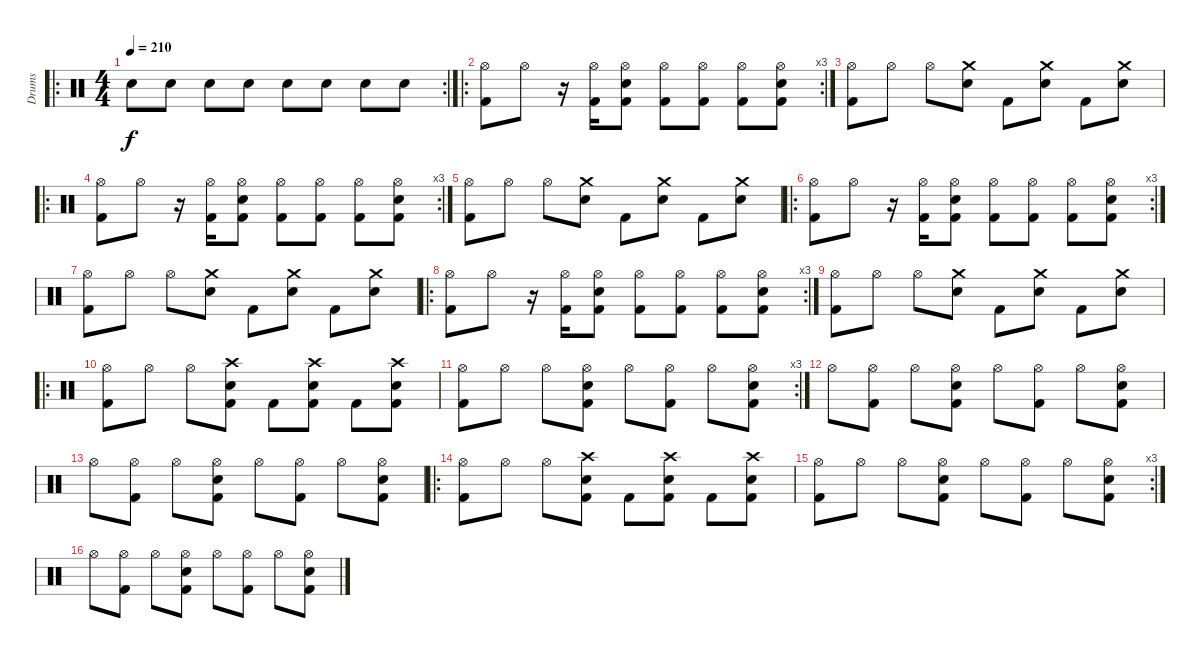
\track ("Drums" "Drums") {instrument percussion}
\staff {score}
\articulation defaults
\ro
\rc 2
\ts (4 4)
\tempo 210
\clef neutral
\ks c "Snare (hit) 2".8{dy f} "Snare (hit) 2".8 "Snare (hit) 2".8 "Snare (hit) 2".8 "Snare (hit) 2".8 "Snare (hit) 2".8 "Snare (hit) 2".8 "Snare (hit) 2".8
|
\ro
\rc 3
("Kick (hit) 2" "Hi-Hat (open)").8 "Hi-Hat (open)".8 r.16 ("Kick (hit) 2" "Hi-Hat (open)").16 ("Snare (hit) 2" "Kick (hit) 2" "Hi-Hat (open)").8 ("Kick (hit) 2" "Hi-Hat (open)").8 ("Kick (hit) 2" "Hi-Hat (open)").8 ("Kick (hit) 2" "Hi-Hat (open)").8 ("Snare (hit) 2" "Kick (hit) 2" "Hi-Hat (open)").8 |
("Kick (hit) 2" "Hi-Hat (open)").8 "Hi-Hat (open)".8 "Hi-Hat (open)".8 ("Snare (hit) 2" "Crash medium (hit)").8 "Kick (hit) 2".8 ("Snare (hit) 2" "Crash medium (hit)").8 "Kick (hit) 2".8 ("Snare (hit) 2" "Crash medium (hit)").8 |
\ro
\rc 3
("Kick (hit) 2" "Hi-Hat (open)").8 "Hi-Hat (open)".8 r.16 ("Kick (hit) 2" "Hi-Hat (open)").16 ("Snare (hit) 2" "Kick (hit) 2" "Hi-Hat (open)").8 ("Kick (hit) 2" "Hi-Hat (open)").8 ("Kick (hit) 2" "Hi-Hat (open)").8 ("Kick (hit) 2" "Hi-Hat (open)").8 ("Snare (hit) 2" "Kick (hit) 2" "Hi-Hat (open)").8 |
("Kick (hit) 2" "Hi-Hat (open)").8 "Hi-Hat (open)".8 "Hi-Hat (open)".8 ("Snare (hit) 2" "Crash medium (hit)").8 "Kick (hit) 2".8 ("Snare (hit) 2" "Crash medium (hit)").8 "Kick (hit) 2".8 ("Snare (hit) 2" "Crash medium (hit)").8 |
\ro
\rc 3
("Kick (hit) 2" "Hi-Hat (open)").8 "Hi-Hat (open)".8 r.16 ("Kick (hit) 2" "Hi-Hat (open)").16 ("Snare (hit) 2" "Kick (hit) 2" "Hi-Hat (open)").8 ("Kick (hit) 2" "Hi-Hat (open)").8 ("Kick (hit) 2" "Hi-Hat (open)").8 ("Kick (hit) 2" "Hi-Hat (open)").8 ("Snare (hit) 2" "Kick (hit) 2" "Hi-Hat (open)").8 |
("Kick (hit) 2" "Hi-Hat (open)").8 "Hi-Hat (open)".8 "Hi-Hat (open)".8 ("Snare (hit) 2" "Crash medium (hit)").8 "Kick (hit) 2".8 ("Snare (hit) 2" "Crash medium (hit)").8 "Kick (hit) 2".8 ("Snare (hit) 2" "Crash medium (hit)").8 |
\ro
\rc 3
("Kick (hit) 2" "Hi-Hat (open)").8 "Hi-Hat (open)".8 r.16 ("Kick (hit) 2" "Hi-Hat (open)").16 ("Snare (hit) 2" "Kick (hit) 2" "Hi-Hat (open)").8 ("Kick (hit) 2" "Hi-Hat (open)").8 ("Kick (hit) 2" "Hi-Hat (open)").8 ("Kick (hit) 2" "Hi-Hat (open)").8 ("Snare (hit) 2" "Kick (hit) 2" "Hi-Hat (open)").8 |
("Kick (hit) 2" "Hi-Hat (open)").8 "Hi-Hat (open)".8 "Hi-Hat (open)".8 ("Snare (hit) 2" "Crash medium (hit)").8 "Kick (hit) 2".8 ("Snare (hit) 2" "Crash medium (hit)").8 "Kick (hit) 2".8 ("Snare (hit) 2" "Crash medium (hit)").8 |
\ro
("Kick (hit) 2" "Hi-Hat (open)").8 "Hi-Hat (open)".8 "Hi-Hat (open)".8 ("Snare (hit) 2" "Kick (hit) 2" "Crash high (hit)").8 "Kick (hit) 2".8 ("Snare (hit) 2" "Kick (hit) 2" "Crash high (hit)").8 "Kick (hit) 2".8 ("Snare (hit) 2" "Kick (hit) 2" "Crash high (hit)").8 |
\rc 3
("Kick (hit) 2" "Hi-Hat (open)").8 "Hi-Hat (open)".8 "Hi-Hat (open)".8 ("Snare (hit) 2" "Kick (hit) 2" "Hi-Hat (open)").8 "Hi-Hat (open)".8 ("Kick (hit) 2" "Hi-Hat (open)").8 "Hi-Hat (open)".8 ("Snare (hit) 2" "Kick (hit) 2" "Hi-Hat (open)").8 |
"Hi-Hat (open)".8 ("Kick (hit) 2" "Hi-Hat (open)").8 "Hi-Hat (open)".8 ("Snare (hit) 2" "Kick (hit) 2" "Hi-Hat (open)").8 "Hi-Hat (open)".8 ("Kick (hit) 2" "Hi-Hat (open)").8 "Hi-Hat (open)".8 ("Snare (hit) 2" "Kick (hit) 2" "Hi-Hat (open)").8 |
"Hi-Hat (open)".8 ("Kick (hit) 2" "Hi-Hat (open)").8 "Hi-Hat (open)".8 ("Snare (hit) 2" "Kick (hit) 2" "Hi-Hat (open)").8 "Hi-Hat (open)".8 ("Kick (hit) 2" "Hi-Hat (open)").8 "Hi-Hat (open)".8 ("Snare (hit) 2" "Kick (hit) 2" "Hi-Hat (open)").8 |
\ro
("Kick (hit) 2" "Hi-Hat (open)").8 "Hi-Hat (open)".8 "Hi-Hat (open)".8 ("Snare (hit) 2" "Kick (hit) 2" "Crash high (hit)").8 "Kick (hit) 2".8 ("Snare (hit) 2" "Kick (hit) 2" "Crash high (hit)").8 "Kick (hit) 2".8 ("Snare (hit) 2" "Kick (hit) 2" "Crash high (hit)").8 |
\rc 3
("Kick (hit) 2" "Hi-Hat (open)").8 "Hi-Hat (open)".8 "Hi-Hat (open)".8 ("Snare (hit) 2" "Kick (hit) 2" "Hi-Hat (open)").8 "Hi-Hat (open)".8 ("Kick (hit) 2" "Hi-Hat (open)").8 "Hi-Hat (open)".8 ("Snare (hit) 2" "Kick (hit) 2" "Hi-Hat (open)").8 |
"Hi-Hat (open)".8 ("Kick (hit) 2" "Hi-Hat (open)").8 "Hi-Hat (open)".8 ("Snare (hit) 2" "Kick (hit) 2" "Hi-Hat (open)").8 "Hi-Hat (open)".8 ("Kick (hit) 2" "Hi-Hat (open)").8 "Hi-Hat (open)".8 ("Snare (hit) 2" "Kick (hit) 2" "Hi-Hat (open)").8
